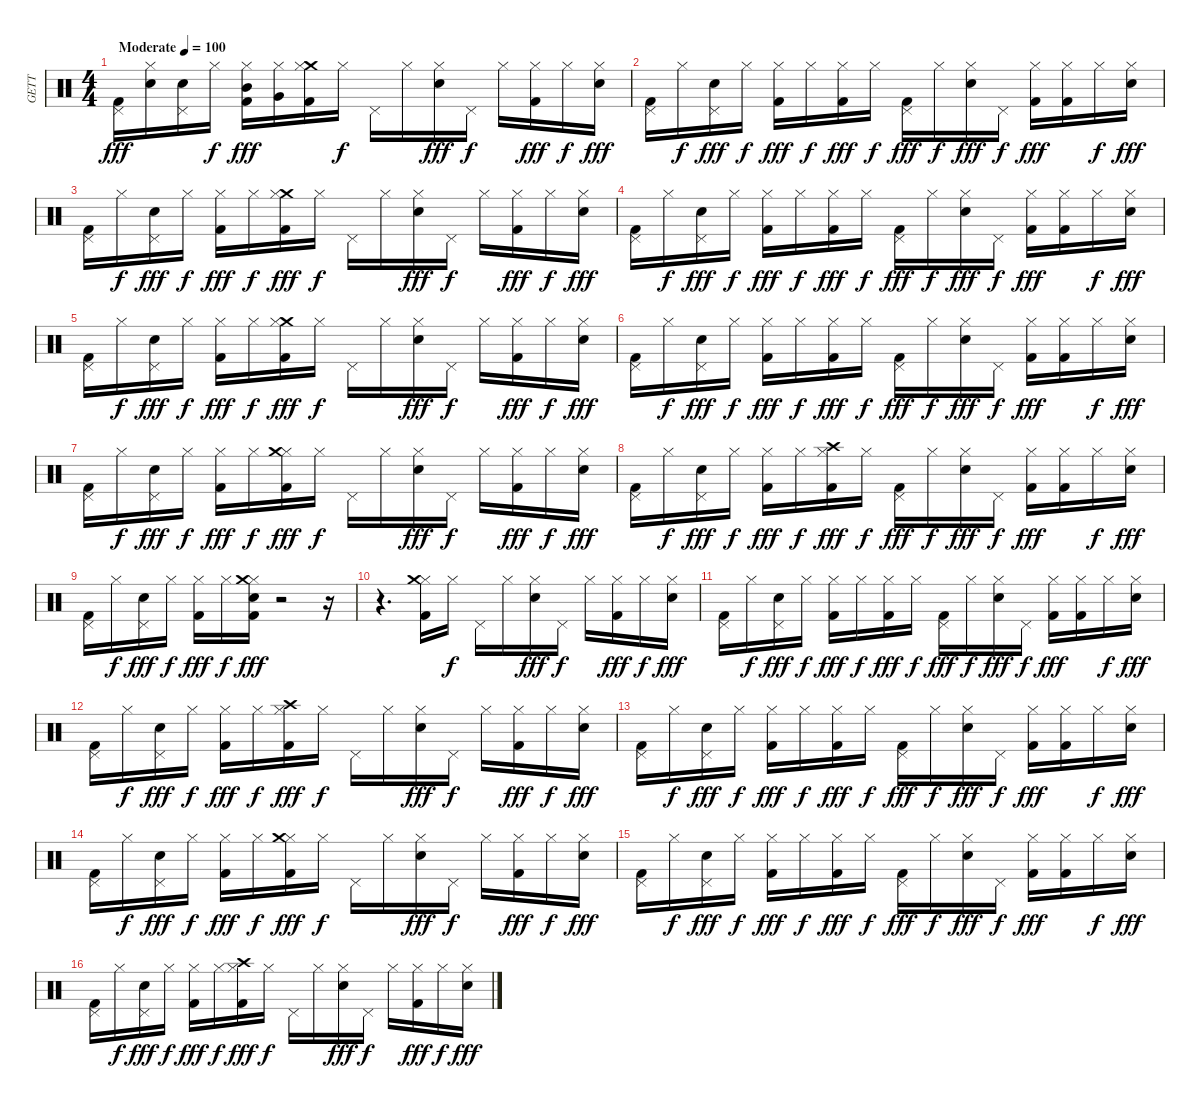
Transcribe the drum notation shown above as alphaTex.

\track ("GETT" "GETT") {instrument percussion}
\staff {score}
\articulation defaults
\ts (4 4)
\tempo (100 "Moderate")
\clef neutral
\ks c
("Pedal Hi-Hat (hit)" "Kick (hit) 2").16{dy fff} ("Hi-Hat (closed)" "Snare (hit) 2").16 ("Pedal Hi-Hat (hit)" "Snare (hit) 2").16 "Hi-Hat (closed)".16{dy f} ("Mid Tom (hit)" "Hi-Hat (closed)" "Kick (hit) 2").16{dy fff} ("Very Low Tom (hit)" "Hi-Hat (closed)").16 ("Kick (hit) 2" "Crash medium (hit)" "Hi-Hat (closed)").16 "Hi-Hat (closed)".16{dy f} "Pedal Hi-Hat (hit)".16 "Hi-Hat (closed)".16 ("Hi-Hat (closed)" "Snare (hit) 2").16{dy fff} "Pedal Hi-Hat (hit)".16{dy f} "Hi-Hat (closed)".16 ("Kick (hit) 2" "Hi-Hat (closed)").16{dy fff} "Hi-Hat (closed)".16{dy f} ("Snare (hit) 2" "Hi-Hat (closed)").16{dy fff} |
("Pedal Hi-Hat (hit)" "Kick (hit) 2").16 "Hi-Hat (closed)".16{dy f} ("Pedal Hi-Hat (hit)" "Snare (hit) 2").16{dy fff} "Hi-Hat (closed)".16{dy f} ("Hi-Hat (closed)" "Kick (hit) 2").16{dy fff} "Hi-Hat (closed)".16{dy f} ("Kick (hit) 2" "Hi-Hat (closed)").16{dy fff} "Hi-Hat (closed)".16{dy f} ("Pedal Hi-Hat (hit)" "Kick (hit) 2").16{dy fff} "Hi-Hat (closed)".16{dy f} ("Hi-Hat (closed)" "Snare (hit) 2").16{dy fff} "Pedal Hi-Hat (hit)".16{dy f} ("Kick (hit) 2" "Hi-Hat (closed)").16{dy fff} ("Hi-Hat (closed)" "Kick (hit) 2").16 "Hi-Hat (closed)".16{dy f} ("Snare (hit) 2" "Hi-Hat (closed)").16{dy fff} |
("Kick (hit) 2" "Pedal Hi-Hat (hit)").16 "Hi-Hat (closed)".16{dy f} ("Snare (hit) 2" "Pedal Hi-Hat (hit)").16{dy fff} "Hi-Hat (closed)".16{dy f} ("Hi-Hat (closed)" "Kick (hit) 2").16{dy fff} "Hi-Hat (closed)".16{dy f} ("Kick (hit) 2" "Crash medium (hit)" "Hi-Hat (closed)").16{dy fff} "Hi-Hat (closed)".16{dy f} "Pedal Hi-Hat (hit)".16 "Hi-Hat (closed)".16 ("Hi-Hat (closed)" "Snare (hit) 2").16{dy fff} "Pedal Hi-Hat (hit)".16{dy f} "Hi-Hat (closed)".16 ("Kick (hit) 2" "Hi-Hat (closed)").16{dy fff} "Hi-Hat (closed)".16{dy f} ("Snare (hit) 2" "Hi-Hat (closed)").16{dy fff} |
("Pedal Hi-Hat (hit)" "Kick (hit) 2").16 "Hi-Hat (closed)".16{dy f} ("Pedal Hi-Hat (hit)" "Snare (hit) 2").16{dy fff} "Hi-Hat (closed)".16{dy f} ("Hi-Hat (closed)" "Kick (hit) 2").16{dy fff} "Hi-Hat (closed)".16{dy f} ("Kick (hit) 2" "Hi-Hat (closed)").16{dy fff} "Hi-Hat (closed)".16{dy f} ("Kick (hit) 2" "Pedal Hi-Hat (hit)").16{dy fff} "Hi-Hat (closed)".16{dy f} ("Snare (hit) 2" "Hi-Hat (closed)").16{dy fff} "Pedal Hi-Hat (hit)".16{dy f} ("Kick (hit) 2" "Hi-Hat (closed)").16{dy fff} ("Kick (hit) 2" "Hi-Hat (closed)").16 "Hi-Hat (closed)".16{dy f} ("Snare (hit) 2" "Hi-Hat (closed)").16{dy fff} |
("Pedal Hi-Hat (hit)" "Kick (hit) 2").16 "Hi-Hat (closed)".16{dy f} ("Pedal Hi-Hat (hit)" "Snare (hit) 2").16{dy fff} "Hi-Hat (closed)".16{dy f} ("Kick (hit) 2" "Hi-Hat (closed)").16{dy fff} "Hi-Hat (closed)".16{dy f} ("Crash medium (hit)" "Hi-Hat (closed)" "Kick (hit) 2").16{dy fff} "Hi-Hat (closed)".16{dy f} "Pedal Hi-Hat (hit)".16 "Hi-Hat (closed)".16 ("Hi-Hat (closed)" "Snare (hit) 2").16{dy fff} "Pedal Hi-Hat (hit)".16{dy f} "Hi-Hat (closed)".16 ("Hi-Hat (closed)" "Kick (hit) 2").16{dy fff} "Hi-Hat (closed)".16{dy f} ("Hi-Hat (closed)" "Snare (hit) 2").16{dy fff} |
("Pedal Hi-Hat (hit)" "Kick (hit) 2").16 "Hi-Hat (closed)".16{dy f} ("Pedal Hi-Hat (hit)" "Snare (hit) 2").16{dy fff} "Hi-Hat (closed)".16{dy f} ("Hi-Hat (closed)" "Kick (hit) 2").16{dy fff} "Hi-Hat (closed)".16{dy f} ("Kick (hit) 2" "Hi-Hat (closed)").16{dy fff} "Hi-Hat (closed)".16{dy f} ("Pedal Hi-Hat (hit)" "Kick (hit) 2").16{dy fff} "Hi-Hat (closed)".16{dy f} ("Hi-Hat (closed)" "Snare (hit) 2").16{dy fff} "Pedal Hi-Hat (hit)".16{dy f} ("Hi-Hat (closed)" "Kick (hit) 2").16{dy fff} ("Kick (hit) 2" "Hi-Hat (closed)").16 "Hi-Hat (closed)".16{dy f} ("Hi-Hat (closed)" "Snare (hit) 2").16{dy fff} |
("Pedal Hi-Hat (hit)" "Kick (hit) 2").16 "Hi-Hat (closed)".16{dy f} ("Pedal Hi-Hat (hit)" "Snare (hit) 2").16{dy fff} "Hi-Hat (closed)".16{dy f} ("Hi-Hat (closed)" "Kick (hit) 2").16{dy fff} "Hi-Hat (closed)".16{dy f} ("Kick (hit) 2" "Hi-Hat (closed)" "Crash medium (hit)").16{dy fff} "Hi-Hat (closed)".16{dy f} "Pedal Hi-Hat (hit)".16 "Hi-Hat (closed)".16 ("Hi-Hat (closed)" "Snare (hit) 2").16{dy fff} "Pedal Hi-Hat (hit)".16{dy f} "Hi-Hat (closed)".16 ("Hi-Hat (closed)" "Kick (hit) 2").16{dy fff} "Hi-Hat (closed)".16{dy f} ("Hi-Hat (closed)" "Snare (hit) 2").16{dy fff} |
("Pedal Hi-Hat (hit)" "Kick (hit) 2").16 "Hi-Hat (closed)".16{dy f} ("Pedal Hi-Hat (hit)" "Snare (hit) 2").16{dy fff} "Hi-Hat (closed)".16{dy f} ("Hi-Hat (closed)" "Kick (hit) 2").16{dy fff} "Hi-Hat (closed)".16{dy f} ("Crash high (hit)" "Hi-Hat (closed)" "Kick (hit) 2").16{dy fff} "Hi-Hat (closed)".16{dy f} ("Pedal Hi-Hat (hit)" "Kick (hit) 2").16{dy fff} "Hi-Hat (closed)".16{dy f} ("Hi-Hat (closed)" "Snare (hit) 2").16{dy fff} "Pedal Hi-Hat (hit)".16{dy f} ("Kick (hit) 2" "Hi-Hat (closed)").16{dy fff} ("Kick (hit) 2" "Hi-Hat (closed)").16 "Hi-Hat (closed)".16{dy f} ("Hi-Hat (closed)" "Snare (hit) 2").16{dy fff} |
("Pedal Hi-Hat (hit)" "Kick (hit) 2").16 "Hi-Hat (closed)".16{dy f} ("Snare (hit) 2" "Pedal Hi-Hat (hit)").16{dy fff} "Hi-Hat (closed)".16{dy f} ("Kick (hit) 2" "Hi-Hat (closed)").16{dy fff} "Hi-Hat (closed)".16{dy f} ("Hi-Hat (closed)" "Kick (hit) 2" "Crash medium (hit)" "Snare (hit) 2").16{dy fff} r.2 r.16 |
r.4{d} ("Hi-Hat (closed)" "Crash medium (hit)" "Kick (hit) 2").16 "Hi-Hat (closed)".16{dy f} "Pedal Hi-Hat (hit)".16 "Hi-Hat (closed)".16 ("Hi-Hat (closed)" "Snare (hit) 2").16{dy fff} "Pedal Hi-Hat (hit)".16{dy f} "Hi-Hat (closed)".16 ("Hi-Hat (closed)" "Kick (hit) 2").16{dy fff} "Hi-Hat (closed)".16{dy f} ("Hi-Hat (closed)" "Snare (hit) 2").16{dy fff} |
("Pedal Hi-Hat (hit)" "Kick (hit) 2").16 "Hi-Hat (closed)".16{dy f} ("Pedal Hi-Hat (hit)" "Snare (hit) 2").16{dy fff} "Hi-Hat (closed)".16{dy f} ("Hi-Hat (closed)" "Kick (hit) 2").16{dy fff} "Hi-Hat (closed)".16{dy f} ("Kick (hit) 2" "Hi-Hat (closed)").16{dy fff} "Hi-Hat (closed)".16{dy f} ("Pedal Hi-Hat (hit)" "Kick (hit) 2").16{dy fff} "Hi-Hat (closed)".16{dy f} ("Hi-Hat (closed)" "Snare (hit) 2").16{dy fff} "Pedal Hi-Hat (hit)".16{dy f} ("Hi-Hat (closed)" "Kick (hit) 2").16{dy fff} ("Hi-Hat (closed)" "Kick (hit) 2").16 "Hi-Hat (closed)".16{dy f} ("Hi-Hat (closed)" "Snare (hit) 2").16{dy fff} |
("Pedal Hi-Hat (hit)" "Kick (hit) 2").16 "Hi-Hat (closed)".16{dy f} ("Pedal Hi-Hat (hit)" "Snare (hit) 2").16{dy fff} "Hi-Hat (closed)".16{dy f} ("Hi-Hat (closed)" "Kick (hit) 2").16{dy fff} "Hi-Hat (closed)".16{dy f} ("Hi-Hat (closed)" "Crash high (hit)" "Kick (hit) 2").16{dy fff} "Hi-Hat (closed)".16{dy f} "Pedal Hi-Hat (hit)".16 "Hi-Hat (closed)".16 ("Hi-Hat (closed)" "Snare (hit) 2").16{dy fff} "Pedal Hi-Hat (hit)".16{dy f} "Hi-Hat (closed)".16 ("Hi-Hat (closed)" "Kick (hit) 2").16{dy fff} "Hi-Hat (closed)".16{dy f} ("Hi-Hat (closed)" "Snare (hit) 2").16{dy fff} |
("Pedal Hi-Hat (hit)" "Kick (hit) 2").16 "Hi-Hat (closed)".16{dy f} ("Pedal Hi-Hat (hit)" "Snare (hit) 2").16{dy fff} "Hi-Hat (closed)".16{dy f} ("Hi-Hat (closed)" "Kick (hit) 2").16{dy fff} "Hi-Hat (closed)".16{dy f} ("Kick (hit) 2" "Hi-Hat (closed)").16{dy fff} "Hi-Hat (closed)".16{dy f} ("Kick (hit) 2" "Pedal Hi-Hat (hit)").16{dy fff} "Hi-Hat (closed)".16{dy f} ("Snare (hit) 2" "Hi-Hat (closed)").16{dy fff} "Pedal Hi-Hat (hit)".16{dy f} ("Hi-Hat (closed)" "Kick (hit) 2").16{dy fff} ("Kick (hit) 2" "Hi-Hat (closed)").16 "Hi-Hat (closed)".16{dy f} ("Hi-Hat (closed)" "Snare (hit) 2").16{dy fff} |
("Pedal Hi-Hat (hit)" "Kick (hit) 2").16 "Hi-Hat (closed)".16{dy f} ("Pedal Hi-Hat (hit)" "Snare (hit) 2").16{dy fff} "Hi-Hat (closed)".16{dy f} ("Kick (hit) 2" "Hi-Hat (closed)").16{dy fff} "Hi-Hat (closed)".16{dy f} ("Hi-Hat (closed)" "Kick (hit) 2" "Crash medium (hit)").16{dy fff} "Hi-Hat (closed)".16{dy f} "Pedal Hi-Hat (hit)".16 "Hi-Hat (closed)".16 ("Hi-Hat (closed)" "Snare (hit) 2").16{dy fff} "Pedal Hi-Hat (hit)".16{dy f} "Hi-Hat (closed)".16 ("Kick (hit) 2" "Hi-Hat (closed)").16{dy fff} "Hi-Hat (closed)".16{dy f} ("Snare (hit) 2" "Hi-Hat (closed)").16{dy fff} |
("Pedal Hi-Hat (hit)" "Kick (hit) 2").16 "Hi-Hat (closed)".16{dy f} ("Pedal Hi-Hat (hit)" "Snare (hit) 2").16{dy fff} "Hi-Hat (closed)".16{dy f} ("Hi-Hat (closed)" "Kick (hit) 2").16{dy fff} "Hi-Hat (closed)".16{dy f} ("Hi-Hat (closed)" "Kick (hit) 2").16{dy fff} "Hi-Hat (closed)".16{dy f} ("Pedal Hi-Hat (hit)" "Kick (hit) 2").16{dy fff} "Hi-Hat (closed)".16{dy f} ("Snare (hit) 2" "Hi-Hat (closed)").16{dy fff} "Pedal Hi-Hat (hit)".16{dy f} ("Hi-Hat (closed)" "Kick (hit) 2").16{dy fff} ("Kick (hit) 2" "Hi-Hat (closed)").16 "Hi-Hat (closed)".16{dy f} ("Snare (hit) 2" "Hi-Hat (closed)").16{dy fff} |
("Pedal Hi-Hat (hit)" "Kick (hit) 2").16 "Hi-Hat (closed)".16{dy f} ("Snare (hit) 2" "Pedal Hi-Hat (hit)").16{dy fff} "Hi-Hat (closed)".16{dy f} ("Kick (hit) 2" "Hi-Hat (closed)").16{dy fff} "Hi-Hat (closed)".16{dy f} ("Hi-Hat (closed)" "Kick (hit) 2" "Crash high (hit)").16{dy fff} "Hi-Hat (closed)".16{dy f} "Pedal Hi-Hat (hit)".16 "Hi-Hat (closed)".16 ("Hi-Hat (closed)" "Snare (hit) 2").16{dy fff} "Pedal Hi-Hat (hit)".16{dy f} "Hi-Hat (closed)".16 ("Kick (hit) 2" "Hi-Hat (closed)").16{dy fff} "Hi-Hat (closed)".16{dy f} ("Snare (hit) 2" "Hi-Hat (closed)").16{dy fff}
